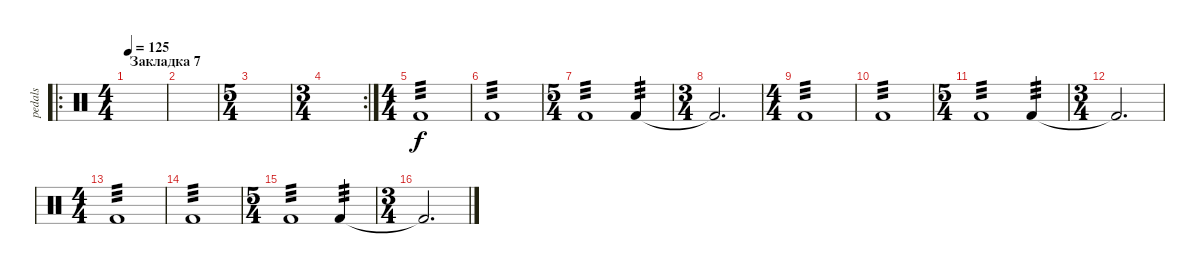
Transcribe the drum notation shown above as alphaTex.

\track ("pedals" "pedals") {instrument percussion}
\staff {score}
\articulation defaults
\ro
\ts (4 4)
\section ("" "Закладка 7")
\tempo 125
\clef neutral
\ks c
|
|
\ts (5 4)
|
\rc 2
\ts (3 4)
|
\ts (4 4)
"Kick (hit) 2".1{tp 3 dy f} |
"Kick (hit) 2".1{tp 3} |
\ts (5 4)
"Kick (hit) 2".1{tp 3} "Kick (hit) 2".4{tp 3} |
\ts (3 4)
"Kick (hit) 2"{t}.2{d} |
\ts (4 4)
"Kick (hit) 2".1{tp 3} |
"Kick (hit) 2".1{tp 3} |
\ts (5 4)
"Kick (hit) 2".1{tp 3} "Kick (hit) 2".4{tp 3} |
\ts (3 4)
"Kick (hit) 2"{t}.2{d} |
\ts (4 4)
"Kick (hit) 2".1{tp 3} |
"Kick (hit) 2".1{tp 3} |
\ts (5 4)
"Kick (hit) 2".1{tp 3} "Kick (hit) 2".4{tp 3} |
\ts (3 4)
"Kick (hit) 2"{t}.2{d}
